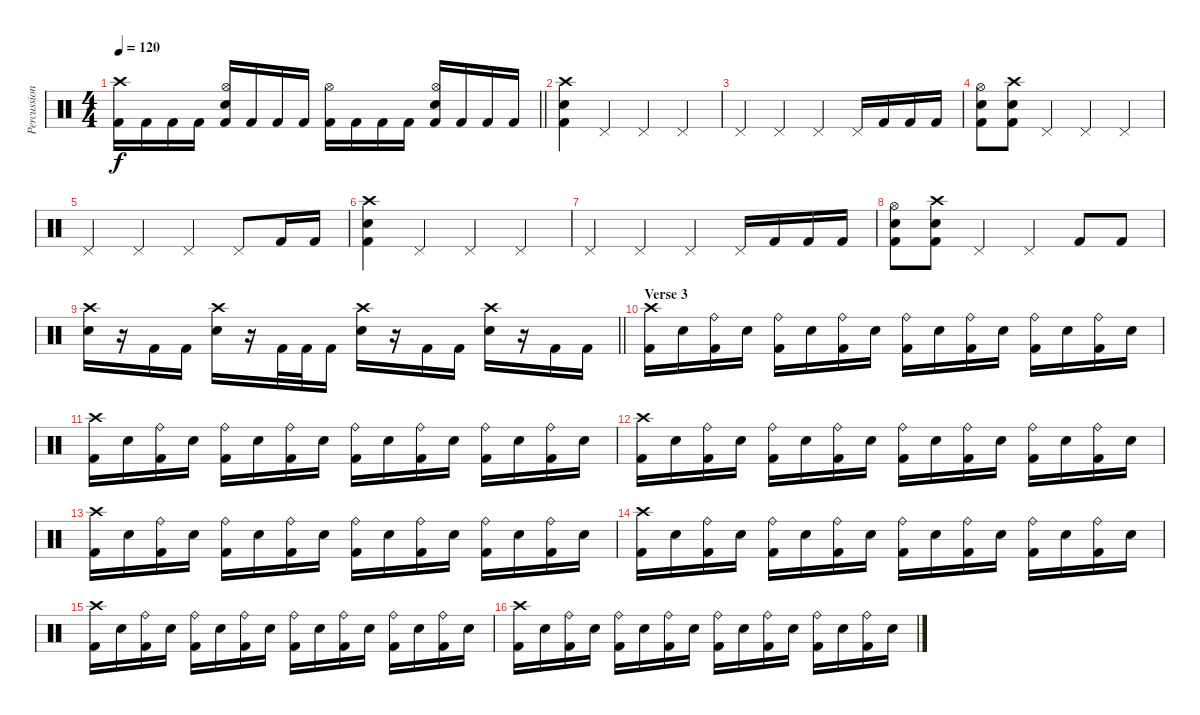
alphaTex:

\track ("Percussion" "Percussion") {instrument percussion}
\staff {score}
\articulation defaults
\ts (4 4)
\tempo 120
\clef neutral
\barLineRight lightlight
\ks c
("Crash high (hit)" "Kick (hit) 2").16{dy f} "Kick (hit) 2".16 "Kick (hit) 2".16 "Kick (hit) 2".16 ("Hi-Hat (open)" "Electric Snare (hit)" "Kick (hit) 2").16 "Kick (hit) 2".16 "Kick (hit) 2".16 "Kick (hit) 2".16 ("Hi-Hat (open)" "Kick (hit) 2").16 "Kick (hit) 2".16 "Kick (hit) 2".16 "Kick (hit) 2".16 ("Hi-Hat (open)" "Electric Snare (hit)" "Kick (hit) 2").16 "Kick (hit) 2".16 "Kick (hit) 2".16 "Kick (hit) 2".16 |
\section ("" "")
("Crash high (hit)" "Electric Snare (hit)" "Kick (hit) 2").4 "Pedal Hi-Hat (hit)".4 "Pedal Hi-Hat (hit)".4 "Pedal Hi-Hat (hit)".4 |
"Pedal Hi-Hat (hit)".4 "Pedal Hi-Hat (hit)".4 "Pedal Hi-Hat (hit)".4 "Pedal Hi-Hat (hit)".16 "Kick (hit) 2".16 "Kick (hit) 2".16 "Kick (hit) 2".16 |
("Hi-Hat (open)" "Electric Snare (hit)" "Kick (hit) 2").8 ("Crash high (hit)" "Electric Snare (hit)" "Kick (hit) 2").8 "Pedal Hi-Hat (hit)".4 "Pedal Hi-Hat (hit)".4 "Pedal Hi-Hat (hit)".4 |
"Pedal Hi-Hat (hit)".4 "Pedal Hi-Hat (hit)".4 "Pedal Hi-Hat (hit)".4 "Pedal Hi-Hat (hit)".8 "Kick (hit) 2".16 "Kick (hit) 2".16 |
("Crash high (hit)" "Electric Snare (hit)" "Kick (hit) 2").4 "Pedal Hi-Hat (hit)".4 "Pedal Hi-Hat (hit)".4 "Pedal Hi-Hat (hit)".4 |
"Pedal Hi-Hat (hit)".4 "Pedal Hi-Hat (hit)".4 "Pedal Hi-Hat (hit)".4 "Pedal Hi-Hat (hit)".16 "Kick (hit) 2".16 "Kick (hit) 2".16 "Kick (hit) 2".16 |
("Hi-Hat (open)" "Electric Snare (hit)" "Kick (hit) 2").8 ("Crash high (hit)" "Electric Snare (hit)" "Kick (hit) 2").8 "Pedal Hi-Hat (hit)".4 "Pedal Hi-Hat (hit)".4 "Kick (hit) 2".8 "Kick (hit) 2".8 |
\barLineRight lightlight
("Crash high (hit)" "Electric Snare (hit)").16 r.16 "Kick (hit) 2".16 "Kick (hit) 2".16 ("Crash high (hit)" "Electric Snare (hit)").16 r.16 "Kick (hit) 2".32 "Kick (hit) 2".32 "Kick (hit) 2".16 ("Crash high (hit)" "Electric Snare (hit)").16 r.16 "Kick (hit) 2".16 "Kick (hit) 2".16 ("Crash high (hit)" "Electric Snare (hit)").16 r.16 "Kick (hit) 2".16 "Kick (hit) 2".16 |
\section ("" "Verse 3")
("Crash high (hit)" "Kick (hit) 2").16 "Electric Snare (hit)".16 ("Ride (bell)" "Kick (hit) 2").16 "Electric Snare (hit)".16 ("Ride (bell)" "Kick (hit) 2").16 "Electric Snare (hit)".16 ("Ride (bell)" "Kick (hit) 2").16 "Electric Snare (hit)".16 ("Ride (bell)" "Kick (hit) 2").16 "Electric Snare (hit)".16 ("Ride (bell)" "Kick (hit) 2").16 "Electric Snare (hit)".16 ("Ride (bell)" "Kick (hit) 2").16 "Electric Snare (hit)".16 ("Ride (bell)" "Kick (hit) 2").16 "Electric Snare (hit)".16 |
("Crash high (hit)" "Kick (hit) 2").16 "Electric Snare (hit)".16 ("Ride (bell)" "Kick (hit) 2").16 "Electric Snare (hit)".16 ("Ride (bell)" "Kick (hit) 2").16 "Electric Snare (hit)".16 ("Ride (bell)" "Kick (hit) 2").16 "Electric Snare (hit)".16 ("Ride (bell)" "Kick (hit) 2").16 "Electric Snare (hit)".16 ("Ride (bell)" "Kick (hit) 2").16 "Electric Snare (hit)".16 ("Ride (bell)" "Kick (hit) 2").16 "Electric Snare (hit)".16 ("Ride (bell)" "Kick (hit) 2").16 "Electric Snare (hit)".16 |
("Crash high (hit)" "Kick (hit) 2").16 "Electric Snare (hit)".16 ("Ride (bell)" "Kick (hit) 2").16 "Electric Snare (hit)".16 ("Ride (bell)" "Kick (hit) 2").16 "Electric Snare (hit)".16 ("Ride (bell)" "Kick (hit) 2").16 "Electric Snare (hit)".16 ("Ride (bell)" "Kick (hit) 2").16 "Electric Snare (hit)".16 ("Ride (bell)" "Kick (hit) 2").16 "Electric Snare (hit)".16 ("Ride (bell)" "Kick (hit) 2").16 "Electric Snare (hit)".16 ("Ride (bell)" "Kick (hit) 2").16 "Electric Snare (hit)".16 |
("Crash high (hit)" "Kick (hit) 2").16 "Electric Snare (hit)".16 ("Ride (bell)" "Kick (hit) 2").16 "Electric Snare (hit)".16 ("Ride (bell)" "Kick (hit) 2").16 "Electric Snare (hit)".16 ("Ride (bell)" "Kick (hit) 2").16 "Electric Snare (hit)".16 ("Ride (bell)" "Kick (hit) 2").16 "Electric Snare (hit)".16 ("Ride (bell)" "Kick (hit) 2").16 "Electric Snare (hit)".16 ("Ride (bell)" "Kick (hit) 2").16 "Electric Snare (hit)".16 ("Ride (bell)" "Kick (hit) 2").16 "Electric Snare (hit)".16 |
("Crash high (hit)" "Kick (hit) 2").16 "Electric Snare (hit)".16 ("Ride (bell)" "Kick (hit) 2").16 "Electric Snare (hit)".16 ("Ride (bell)" "Kick (hit) 2").16 "Electric Snare (hit)".16 ("Ride (bell)" "Kick (hit) 2").16 "Electric Snare (hit)".16 ("Ride (bell)" "Kick (hit) 2").16 "Electric Snare (hit)".16 ("Ride (bell)" "Kick (hit) 2").16 "Electric Snare (hit)".16 ("Ride (bell)" "Kick (hit) 2").16 "Electric Snare (hit)".16 ("Ride (bell)" "Kick (hit) 2").16 "Electric Snare (hit)".16 |
("Crash high (hit)" "Kick (hit) 2").16 "Electric Snare (hit)".16 ("Ride (bell)" "Kick (hit) 2").16 "Electric Snare (hit)".16 ("Ride (bell)" "Kick (hit) 2").16 "Electric Snare (hit)".16 ("Ride (bell)" "Kick (hit) 2").16 "Electric Snare (hit)".16 ("Ride (bell)" "Kick (hit) 2").16 "Electric Snare (hit)".16 ("Ride (bell)" "Kick (hit) 2").16 "Electric Snare (hit)".16 ("Ride (bell)" "Kick (hit) 2").16 "Electric Snare (hit)".16 ("Ride (bell)" "Kick (hit) 2").16 "Electric Snare (hit)".16 |
("Crash high (hit)" "Kick (hit) 2").16 "Electric Snare (hit)".16 ("Ride (bell)" "Kick (hit) 2").16 "Electric Snare (hit)".16 ("Ride (bell)" "Kick (hit) 2").16 "Electric Snare (hit)".16 ("Ride (bell)" "Kick (hit) 2").16 "Electric Snare (hit)".16 ("Ride (bell)" "Kick (hit) 2").16 "Electric Snare (hit)".16 ("Ride (bell)" "Kick (hit) 2").16 "Electric Snare (hit)".16 ("Ride (bell)" "Kick (hit) 2").16 "Electric Snare (hit)".16 ("Ride (bell)" "Kick (hit) 2").16 "Electric Snare (hit)".16
